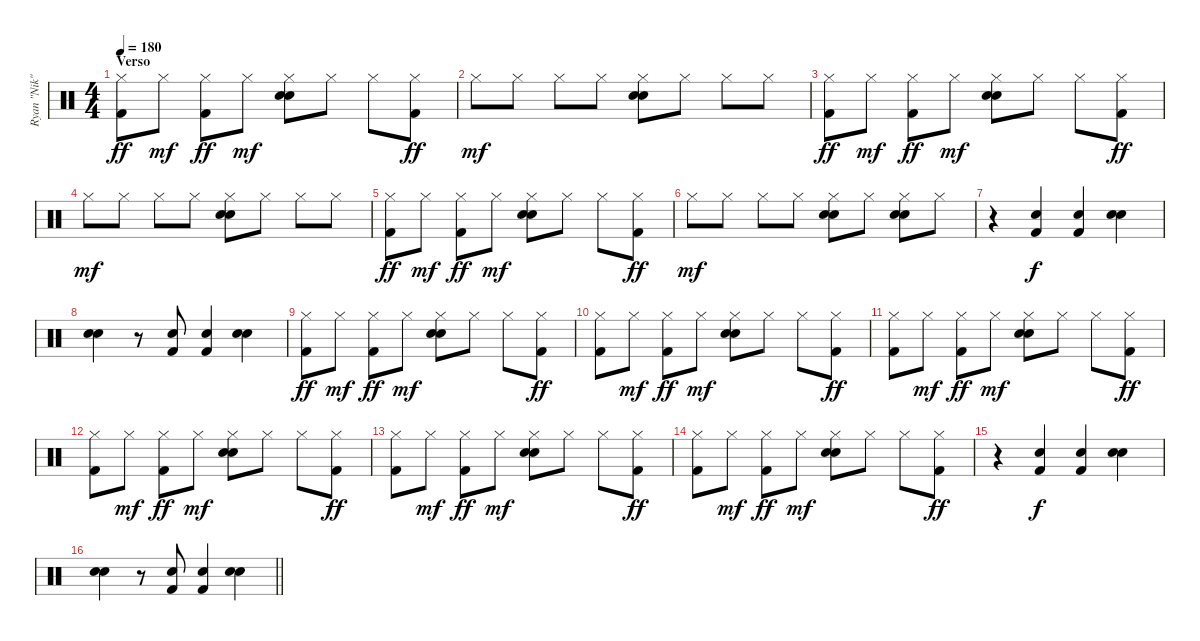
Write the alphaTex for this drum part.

\track ("Ryan \"Nik\"" "Ryan \"Nik\"") {instrument percussion}
\staff {score}
\articulation defaults
\ts (4 4)
\section ("" "Verso")
\tempo 180
\clef neutral
\ks c
("Hi-Hat (closed)" "Kick (hit) 2").8{dy ff} "Hi-Hat (closed)".8{dy mf} ("Hi-Hat (closed)" "Kick (hit) 2").8{dy ff} "Hi-Hat (closed)".8{dy mf} ("Hi-Hat (closed)" "Electric Snare (hit)" "Electric Snare (hit)").8 "Hi-Hat (closed)".8 "Hi-Hat (closed)".8 ("Hi-Hat (closed)" "Kick (hit) 2").8{dy ff} |
"Hi-Hat (closed)".8{dy mf} "Hi-Hat (closed)".8 "Hi-Hat (closed)".8 "Hi-Hat (closed)".8 ("Hi-Hat (closed)" "Electric Snare (hit)" "Electric Snare (hit)").8 "Hi-Hat (closed)".8 "Hi-Hat (closed)".8 "Hi-Hat (closed)".8 |
("Hi-Hat (closed)" "Kick (hit) 2").8{dy ff} "Hi-Hat (closed)".8{dy mf} ("Hi-Hat (closed)" "Kick (hit) 2").8{dy ff} "Hi-Hat (closed)".8{dy mf} ("Hi-Hat (closed)" "Electric Snare (hit)" "Electric Snare (hit)").8 "Hi-Hat (closed)".8 "Hi-Hat (closed)".8 ("Hi-Hat (closed)" "Kick (hit) 2").8{dy ff} |
"Hi-Hat (closed)".8{dy mf} "Hi-Hat (closed)".8 "Hi-Hat (closed)".8 "Hi-Hat (closed)".8 ("Hi-Hat (closed)" "Electric Snare (hit)" "Electric Snare (hit)").8 "Hi-Hat (closed)".8 "Hi-Hat (closed)".8 "Hi-Hat (closed)".8 |
("Hi-Hat (closed)" "Kick (hit) 2").8{dy ff} "Hi-Hat (closed)".8{dy mf} ("Hi-Hat (closed)" "Kick (hit) 2").8{dy ff} "Hi-Hat (closed)".8{dy mf} ("Hi-Hat (closed)" "Electric Snare (hit)" "Electric Snare (hit)").8 "Hi-Hat (closed)".8 "Hi-Hat (closed)".8 ("Hi-Hat (closed)" "Kick (hit) 2").8{dy ff} |
"Hi-Hat (closed)".8{dy mf} "Hi-Hat (closed)".8 "Hi-Hat (closed)".8 "Hi-Hat (closed)".8 ("Hi-Hat (closed)" "Electric Snare (hit)" "Electric Snare (hit)").8 "Hi-Hat (closed)".8 ("Hi-Hat (closed)" "Electric Snare (hit)" "Electric Snare (hit)").8 "Hi-Hat (closed)".8 |
r.4 ("Electric Snare (hit)" "Kick (hit) 2").4{dy f} ("Electric Snare (hit)" "Kick (hit) 2").4 ("Electric Snare (hit)" "Electric Snare (hit)").4 |
("Electric Snare (hit)" "Electric Snare (hit)").4 r.8 ("Electric Snare (hit)" "Kick (hit) 2").8 ("Electric Snare (hit)" "Kick (hit) 2").4 ("Electric Snare (hit)" "Electric Snare (hit)").4 |
("Hi-Hat (closed)" "Kick (hit) 2").8{dy ff} "Hi-Hat (closed)".8{dy mf} ("Hi-Hat (closed)" "Kick (hit) 2").8{dy ff} "Hi-Hat (closed)".8{dy mf} ("Hi-Hat (closed)" "Electric Snare (hit)" "Electric Snare (hit)").8 "Hi-Hat (closed)".8 "Hi-Hat (closed)".8 ("Hi-Hat (closed)" "Kick (hit) 2").8{dy ff} |
("Hi-Hat (closed)" "Kick (hit) 2").8 "Hi-Hat (closed)".8{dy mf} ("Hi-Hat (closed)" "Kick (hit) 2").8{dy ff} "Hi-Hat (closed)".8{dy mf} ("Hi-Hat (closed)" "Electric Snare (hit)" "Electric Snare (hit)").8 "Hi-Hat (closed)".8 "Hi-Hat (closed)".8 ("Hi-Hat (closed)" "Kick (hit) 2").8{dy ff} |
("Hi-Hat (closed)" "Kick (hit) 2").8 "Hi-Hat (closed)".8{dy mf} ("Hi-Hat (closed)" "Kick (hit) 2").8{dy ff} "Hi-Hat (closed)".8{dy mf} ("Hi-Hat (closed)" "Electric Snare (hit)" "Electric Snare (hit)").8 "Hi-Hat (closed)".8 "Hi-Hat (closed)".8 ("Hi-Hat (closed)" "Kick (hit) 2").8{dy ff} |
("Hi-Hat (closed)" "Kick (hit) 2").8 "Hi-Hat (closed)".8{dy mf} ("Hi-Hat (closed)" "Kick (hit) 2").8{dy ff} "Hi-Hat (closed)".8{dy mf} ("Hi-Hat (closed)" "Electric Snare (hit)" "Electric Snare (hit)").8 "Hi-Hat (closed)".8 "Hi-Hat (closed)".8 ("Hi-Hat (closed)" "Kick (hit) 2").8{dy ff} |
("Hi-Hat (closed)" "Kick (hit) 2").8 "Hi-Hat (closed)".8{dy mf} ("Hi-Hat (closed)" "Kick (hit) 2").8{dy ff} "Hi-Hat (closed)".8{dy mf} ("Hi-Hat (closed)" "Electric Snare (hit)" "Electric Snare (hit)").8 "Hi-Hat (closed)".8 "Hi-Hat (closed)".8 ("Hi-Hat (closed)" "Kick (hit) 2").8{dy ff} |
("Hi-Hat (closed)" "Kick (hit) 2").8 "Hi-Hat (closed)".8{dy mf} ("Hi-Hat (closed)" "Kick (hit) 2").8{dy ff} "Hi-Hat (closed)".8{dy mf} ("Hi-Hat (closed)" "Electric Snare (hit)" "Electric Snare (hit)").8 "Hi-Hat (closed)".8 "Hi-Hat (closed)".8 ("Hi-Hat (closed)" "Kick (hit) 2").8{dy ff} |
r.4 ("Electric Snare (hit)" "Kick (hit) 2").4{dy f} ("Electric Snare (hit)" "Kick (hit) 2").4 ("Electric Snare (hit)" "Electric Snare (hit)").4 |
\barLineRight lightlight
("Electric Snare (hit)" "Electric Snare (hit)").4 r.8 ("Electric Snare (hit)" "Kick (hit) 2").8 ("Electric Snare (hit)" "Kick (hit) 2").4 ("Electric Snare (hit)" "Electric Snare (hit)").4
